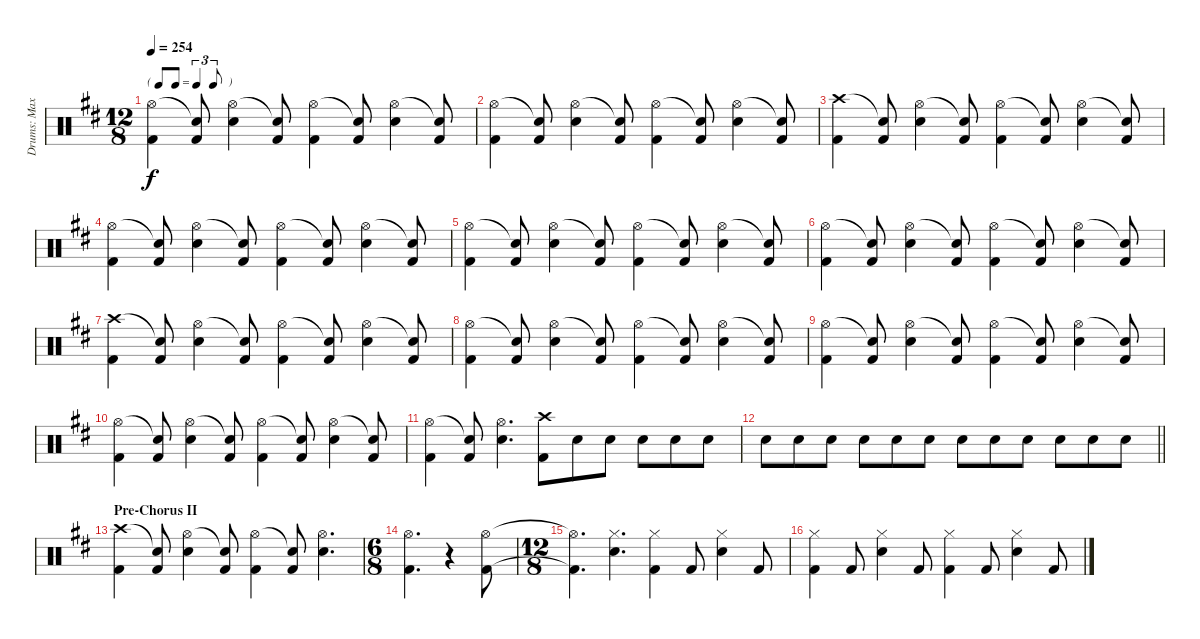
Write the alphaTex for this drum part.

\track ("Drums: Max" "Drums: Max") {instrument percussion}
\staff {score}
\articulation defaults
\ts (12 8)
\tf triplet8th
\tempo 254
\clef neutral
\ks d
("Hi-Hat (open)" "Kick (hit) 2").4{dy f} ("Snare (hit)"{t} "Kick (hit) 2").8 ("Hi-Hat (open)" "Electric Snare (hit)").4 ("Snare (hit)"{t} "Kick (hit) 2").8 ("Hi-Hat (open)" "Kick (hit) 2").4 ("Snare (hit)"{t} "Kick (hit) 2").8 ("Hi-Hat (open)" "Electric Snare (hit)").4 ("Snare (hit)"{t} "Kick (hit) 2").8 |
("Hi-Hat (open)" "Kick (hit) 2").4 ("Snare (hit)"{t} "Kick (hit) 2").8 ("Hi-Hat (open)" "Electric Snare (hit)").4 ("Snare (hit)"{t} "Kick (hit) 2").8 ("Hi-Hat (open)" "Kick (hit) 2").4 ("Snare (hit)"{t} "Kick (hit) 2").8 ("Hi-Hat (open)" "Electric Snare (hit)").4 ("Snare (hit)"{t} "Kick (hit) 2").8 |
("Crash high (hit)" "Kick (hit) 2").4 ("Snare (hit)"{t} "Kick (hit) 2").8 ("Hi-Hat (open)" "Electric Snare (hit)").4 ("Snare (hit)"{t} "Kick (hit) 2").8 ("Hi-Hat (open)" "Kick (hit) 2").4 ("Snare (hit)"{t} "Kick (hit) 2").8 ("Hi-Hat (open)" "Electric Snare (hit)").4 ("Snare (hit)"{t} "Kick (hit) 2").8 |
("Hi-Hat (open)" "Kick (hit) 2").4 ("Snare (hit)"{t} "Kick (hit) 2").8 ("Hi-Hat (open)" "Electric Snare (hit)").4 ("Snare (hit)"{t} "Kick (hit) 2").8 ("Hi-Hat (open)" "Kick (hit) 2").4 ("Snare (hit)"{t} "Kick (hit) 2").8 ("Hi-Hat (open)" "Electric Snare (hit)").4 ("Snare (hit)"{t} "Kick (hit) 2").8 |
("Hi-Hat (open)" "Kick (hit) 2").4 ("Snare (hit)"{t} "Kick (hit) 2").8 ("Hi-Hat (open)" "Electric Snare (hit)").4 ("Snare (hit)"{t} "Kick (hit) 2").8 ("Hi-Hat (open)" "Kick (hit) 2").4 ("Snare (hit)"{t} "Kick (hit) 2").8 ("Hi-Hat (open)" "Electric Snare (hit)").4 ("Snare (hit)"{t} "Kick (hit) 2").8 |
("Hi-Hat (open)" "Kick (hit) 2").4 ("Snare (hit)"{t} "Kick (hit) 2").8 ("Hi-Hat (open)" "Electric Snare (hit)").4 ("Snare (hit)"{t} "Kick (hit) 2").8 ("Hi-Hat (open)" "Kick (hit) 2").4 ("Snare (hit)"{t} "Kick (hit) 2").8 ("Hi-Hat (open)" "Electric Snare (hit)").4 ("Snare (hit)"{t} "Kick (hit) 2").8 |
("Crash high (hit)" "Kick (hit) 2").4 ("Snare (hit)"{t} "Kick (hit) 2").8 ("Hi-Hat (open)" "Electric Snare (hit)").4 ("Snare (hit)"{t} "Kick (hit) 2").8 ("Hi-Hat (open)" "Kick (hit) 2").4 ("Snare (hit)"{t} "Kick (hit) 2").8 ("Hi-Hat (open)" "Electric Snare (hit)").4 ("Snare (hit)"{t} "Kick (hit) 2").8 |
("Hi-Hat (open)" "Kick (hit) 2").4 ("Snare (hit)"{t} "Kick (hit) 2").8 ("Hi-Hat (open)" "Electric Snare (hit)").4 ("Snare (hit)"{t} "Kick (hit) 2").8 ("Hi-Hat (open)" "Kick (hit) 2").4 ("Snare (hit)"{t} "Kick (hit) 2").8 ("Hi-Hat (open)" "Electric Snare (hit)").4 ("Snare (hit)"{t} "Kick (hit) 2").8 |
("Hi-Hat (open)" "Kick (hit) 2").4 ("Snare (hit)"{t} "Kick (hit) 2").8 ("Hi-Hat (open)" "Electric Snare (hit)").4 ("Snare (hit)"{t} "Kick (hit) 2").8 ("Hi-Hat (open)" "Kick (hit) 2").4 ("Snare (hit)"{t} "Kick (hit) 2").8 ("Hi-Hat (open)" "Electric Snare (hit)").4 ("Snare (hit)"{t} "Kick (hit) 2").8 |
("Hi-Hat (open)" "Kick (hit) 2").4 ("Snare (hit)"{t} "Kick (hit) 2").8 ("Hi-Hat (open)" "Electric Snare (hit)").4 ("Snare (hit)"{t} "Kick (hit) 2").8 ("Hi-Hat (open)" "Kick (hit) 2").4 ("Snare (hit)"{t} "Kick (hit) 2").8 ("Hi-Hat (open)" "Electric Snare (hit)").4 ("Snare (hit)"{t} "Kick (hit) 2").8 |
("Hi-Hat (open)" "Kick (hit) 2").4 ("Snare (hit)"{t} "Kick (hit) 2").8 ("Hi-Hat (open)" "Electric Snare (hit)").4{d} ("Crash high (hit)" "Kick (hit) 2").8 "Electric Snare (hit)".8 "Electric Snare (hit)".8 "Electric Snare (hit)".8 "Electric Snare (hit)".8 "Electric Snare (hit)".8 |
\barLineRight lightlight "Electric Snare (hit)".8 "Electric Snare (hit)".8 "Electric Snare (hit)".8 "Electric Snare (hit)".8 "Electric Snare (hit)".8 "Electric Snare (hit)".8 "Electric Snare (hit)".8 "Electric Snare (hit)".8 "Electric Snare (hit)".8 "Electric Snare (hit)".8 "Electric Snare (hit)".8 "Electric Snare (hit)".8
|
\section ("" "Pre-Chorus II")
("Crash high (hit)" "Kick (hit) 2").4 ("Snare (hit)"{t} "Kick (hit) 2").8 ("Hi-Hat (open)" "Electric Snare (hit)").4 ("Snare (hit)"{t} "Kick (hit) 2").8 ("Hi-Hat (open)" "Kick (hit) 2").4 ("Snare (hit)"{t} "Kick (hit) 2").8 ("Hi-Hat (open)" "Electric Snare (hit)").4{d} |
\ts (6 8)
("Hi-Hat (open)" "Kick (hit) 2").4{d} r.4 ("Hi-Hat (open)" "Kick (hit) 2").8 |
\ts (12 8)
("Hi-Hat (open)"{t} "Kick (hit) 2"{t}).4{d} ("Hi-Hat (closed)" "Electric Snare (hit)").4{d} ("Hi-Hat (closed)" "Kick (hit) 2").4 "Kick (hit) 2".8 ("Hi-Hat (closed)" "Electric Snare (hit)").4 "Kick (hit) 2".8 |
("Hi-Hat (closed)" "Kick (hit) 2").4 "Kick (hit) 2".8 ("Hi-Hat (closed)" "Electric Snare (hit)").4 "Kick (hit) 2".8 ("Hi-Hat (closed)" "Kick (hit) 2").4 "Kick (hit) 2".8 ("Hi-Hat (closed)" "Electric Snare (hit)").4 "Kick (hit) 2".8
